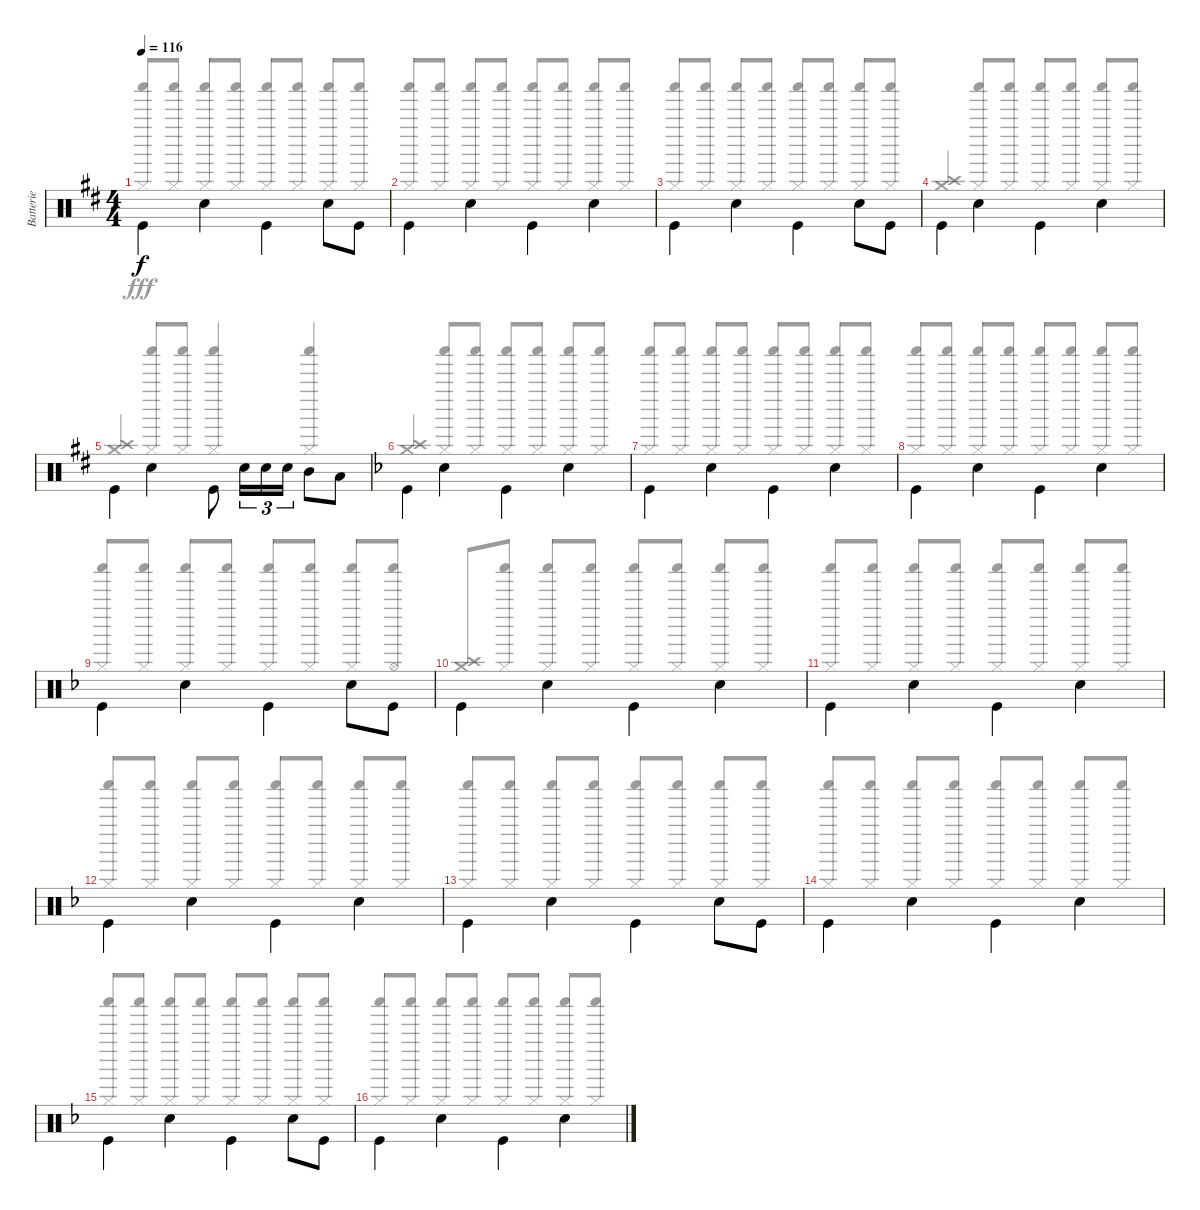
\track ("Batterie" "Batterie") {instrument percussion}
\staff {score}
\articulation defaults
\voice
\ts (4 4)
\tempo 116
\clef neutral
\ks d "Kick (hit)".4{dy f beam Down} "Snare (hit) 2".4{beam Down} "Kick (hit)".4{beam Down} "Snare (hit) 2".8{beam Down} "Kick (hit)".8{beam Down}
|
"Kick (hit)".4{beam Down} "Snare (hit) 2".4{beam Down} "Kick (hit)".4{beam Down} "Snare (hit) 2".4{beam Down} |
"Kick (hit)".4{beam Down} "Snare (hit) 2".4{beam Down} "Kick (hit)".4{beam Down} "Snare (hit) 2".8{beam Down} "Kick (hit)".8{beam Down} |
"Kick (hit)".4{beam Down} "Snare (hit) 2".4{beam Down} "Kick (hit)".4{beam Down} "Snare (hit) 2".4{beam Down} |
"Kick (hit)".4{beam Down} "Snare (hit) 2".4{beam Down} "Kick (hit)".8{beam Down} "Electric Snare (hit)".16{tu (3 2) beam Down} "Electric Snare (hit)".16{tu (3 2) beam Down} "Electric Snare (hit)".16{tu (3 2) beam Down} "Mid Tom (hit)".8{beam Down} "Low Tom (hit)".8{beam Down} |
\ks f "Kick (hit)".4{beam Down} "Snare (hit) 2".4{beam Down} "Kick (hit)".4{beam Down} "Snare (hit) 2".4{beam Down}
|
"Kick (hit)".4{beam Down} "Snare (hit) 2".4{beam Down} "Kick (hit)".4{beam Down} "Snare (hit) 2".4{beam Down} |
"Kick (hit)".4{beam Down} "Snare (hit) 2".4{beam Down} "Kick (hit)".4{beam Down} "Snare (hit) 2".4{beam Down} |
"Kick (hit)".4{beam Down} "Snare (hit) 2".4{beam Down} "Kick (hit)".4{beam Down} "Snare (hit) 2".8{beam Down} "Kick (hit)".8{beam Down} |
"Kick (hit)".4{beam Down} "Snare (hit) 2".4{beam Down} "Kick (hit)".4{beam Down} "Snare (hit) 2".4{beam Down} |
"Kick (hit)".4{beam Down} "Snare (hit) 2".4{beam Down} "Kick (hit)".4{beam Down} "Snare (hit) 2".4{beam Down} |
"Kick (hit)".4{beam Down} "Snare (hit) 2".4{beam Down} "Kick (hit)".4{beam Down} "Snare (hit) 2".4{beam Down} |
"Kick (hit)".4{beam Down} "Snare (hit) 2".4{beam Down} "Kick (hit)".4{beam Down} "Snare (hit) 2".8{beam Down} "Kick (hit)".8{beam Down} |
"Kick (hit)".4{beam Down} "Snare (hit) 2".4{beam Down} "Kick (hit)".4{beam Down} "Snare (hit) 2".4{beam Down} |
"Kick (hit)".4{beam Down} "Snare (hit) 2".4{beam Down} "Kick (hit)".4{beam Down} "Snare (hit) 2".8{beam Down} "Kick (hit)".8{beam Down} |
"Kick (hit)".4{beam Down} "Snare (hit) 2".4{beam Down} "Kick (hit)".4{beam Down} "Snare (hit) 2".4{beam Down}
\voice
\clef neutral
\ottava regular
\simile none
\ks d
("Shaker (hit)" "Hi-Hat (closed)").8{dy fff beam Up} ("Shaker (hit)" "Hi-Hat (closed)").8{beam Up} ("Shaker (hit)" "Hi-Hat (closed)").8{beam Up} ("Shaker (hit)" "Hi-Hat (closed)").8{beam Up} ("Shaker (hit)" "Hi-Hat (closed)").8{beam Up} ("Shaker (hit)" "Hi-Hat (closed)").8{beam Up} ("Shaker (hit)" "Hi-Hat (closed)").8{beam Up} ("Shaker (hit)" "Hi-Hat (closed)").8{beam Up} |
("Shaker (hit)" "Hi-Hat (closed)").8{beam Up} ("Shaker (hit)" "Hi-Hat (closed)").8{beam Up} ("Shaker (hit)" "Hi-Hat (closed)").8{beam Up} ("Shaker (hit)" "Hi-Hat (closed)").8{beam Up} ("Shaker (hit)" "Hi-Hat (closed)").8{beam Up} ("Shaker (hit)" "Hi-Hat (closed)").8{beam Up} ("Shaker (hit)" "Hi-Hat (closed)").8{beam Up} ("Shaker (hit)" "Hi-Hat (closed)").8{beam Up} |
("Shaker (hit)" "Hi-Hat (closed)").8{beam Up} ("Shaker (hit)" "Hi-Hat (closed)").8{beam Up} ("Shaker (hit)" "Hi-Hat (closed)").8{beam Up} ("Shaker (hit)" "Hi-Hat (closed)").8{beam Up} ("Shaker (hit)" "Hi-Hat (closed)").8{beam Up} ("Shaker (hit)" "Hi-Hat (closed)").8{beam Up} ("Shaker (hit)" "Hi-Hat (closed)").8{beam Up} ("Shaker (hit)" "Hi-Hat (closed)").8{beam Up} |
("Crash medium (hit)" "Crash high (hit)").4{beam Up} ("Shaker (hit)" "Hi-Hat (closed)").8{beam Up} ("Shaker (hit)" "Hi-Hat (closed)").8{beam Up} ("Shaker (hit)" "Hi-Hat (closed)").8{beam Up} ("Shaker (hit)" "Hi-Hat (closed)").8{beam Up} ("Shaker (hit)" "Hi-Hat (closed)").8{beam Up} ("Shaker (hit)" "Hi-Hat (closed)").8{beam Up} |
("Crash medium (hit)" "Crash high (hit)").4{beam Up} ("Shaker (hit)" "Hi-Hat (closed)").8{beam Up} ("Shaker (hit)" "Hi-Hat (closed)").8{beam Up} ("Shaker (hit)" "Hi-Hat (closed)").4{beam Up} ("Shaker (hit)" "Hi-Hat (closed)").4{beam Up} |
\ks f
("Crash medium (hit)" "Crash high (hit)").4{beam Up} ("Shaker (hit)" "Hi-Hat (closed)").8{beam Up} ("Shaker (hit)" "Hi-Hat (closed)").8{beam Up} ("Shaker (hit)" "Hi-Hat (closed)").8{beam Up} ("Shaker (hit)" "Hi-Hat (closed)").8{beam Up} ("Shaker (hit)" "Hi-Hat (closed)").8{beam Up} ("Shaker (hit)" "Hi-Hat (closed)").8{beam Up} |
("Shaker (hit)" "Hi-Hat (closed)").8{beam Up} ("Shaker (hit)" "Hi-Hat (closed)").8{beam Up} ("Shaker (hit)" "Hi-Hat (closed)").8{beam Up} ("Shaker (hit)" "Hi-Hat (closed)").8{beam Up} ("Shaker (hit)" "Hi-Hat (closed)").8{beam Up} ("Shaker (hit)" "Hi-Hat (closed)").8{beam Up} ("Shaker (hit)" "Hi-Hat (closed)").8{beam Up} ("Shaker (hit)" "Hi-Hat (closed)").8{beam Up} |
("Shaker (hit)" "Hi-Hat (closed)").8{beam Up} ("Shaker (hit)" "Hi-Hat (closed)").8{beam Up} ("Shaker (hit)" "Hi-Hat (closed)").8{beam Up} ("Shaker (hit)" "Hi-Hat (closed)").8{beam Up} ("Shaker (hit)" "Hi-Hat (closed)").8{beam Up} ("Shaker (hit)" "Hi-Hat (closed)").8{beam Up} ("Shaker (hit)" "Hi-Hat (closed)").8{beam Up} ("Shaker (hit)" "Hi-Hat (closed)").8{beam Up} |
("Shaker (hit)" "Hi-Hat (closed)").8{beam Up} ("Shaker (hit)" "Hi-Hat (closed)").8{beam Up} ("Shaker (hit)" "Hi-Hat (closed)").8{beam Up} ("Shaker (hit)" "Hi-Hat (closed)").8{beam Up} ("Shaker (hit)" "Hi-Hat (closed)").8{beam Up} ("Shaker (hit)" "Hi-Hat (closed)").8{beam Up} ("Shaker (hit)" "Hi-Hat (closed)").8{beam Up} ("Shaker (hit)" "Hi-Hat (open)").8{beam Up} |
("Crash medium (hit)" "Crash high (hit)").8{beam Up} ("Shaker (hit)" "Hi-Hat (closed)").8{beam Up} ("Shaker (hit)" "Hi-Hat (closed)").8{beam Up} ("Shaker (hit)" "Hi-Hat (closed)").8{beam Up} ("Shaker (hit)" "Hi-Hat (closed)").8{beam Up} ("Shaker (hit)" "Hi-Hat (closed)").8{beam Up} ("Shaker (hit)" "Hi-Hat (closed)").8{beam Up} ("Shaker (hit)" "Hi-Hat (closed)").8{beam Up} |
("Shaker (hit)" "Hi-Hat (closed)").8{beam Up} ("Shaker (hit)" "Hi-Hat (closed)").8{beam Up} ("Shaker (hit)" "Hi-Hat (closed)").8{beam Up} ("Shaker (hit)" "Hi-Hat (closed)").8{beam Up} ("Shaker (hit)" "Hi-Hat (closed)").8{beam Up} ("Shaker (hit)" "Hi-Hat (closed)").8{beam Up} ("Shaker (hit)" "Hi-Hat (closed)").8{beam Up} ("Shaker (hit)" "Hi-Hat (closed)").8{beam Up} |
("Shaker (hit)" "Hi-Hat (closed)").8{beam Up} ("Shaker (hit)" "Hi-Hat (closed)").8{beam Up} ("Shaker (hit)" "Hi-Hat (closed)").8{beam Up} ("Shaker (hit)" "Hi-Hat (closed)").8{beam Up} ("Shaker (hit)" "Hi-Hat (closed)").8{beam Up} ("Shaker (hit)" "Hi-Hat (closed)").8{beam Up} ("Shaker (hit)" "Hi-Hat (closed)").8{beam Up} ("Shaker (hit)" "Hi-Hat (closed)").8{beam Up} |
("Shaker (hit)" "Hi-Hat (closed)").8{beam Up} ("Shaker (hit)" "Hi-Hat (closed)").8{beam Up} ("Shaker (hit)" "Hi-Hat (closed)").8{beam Up} ("Shaker (hit)" "Hi-Hat (closed)").8{beam Up} ("Shaker (hit)" "Hi-Hat (closed)").8{beam Up} ("Shaker (hit)" "Hi-Hat (closed)").8{beam Up} ("Shaker (hit)" "Hi-Hat (closed)").8{beam Up} ("Shaker (hit)" "Hi-Hat (closed)").8{beam Up} |
("Shaker (hit)" "Hi-Hat (closed)").8{beam Up} ("Shaker (hit)" "Hi-Hat (closed)").8{beam Up} ("Shaker (hit)" "Hi-Hat (closed)").8{beam Up} ("Shaker (hit)" "Hi-Hat (closed)").8{beam Up} ("Shaker (hit)" "Hi-Hat (closed)").8{beam Up} ("Shaker (hit)" "Hi-Hat (closed)").8{beam Up} ("Shaker (hit)" "Hi-Hat (closed)").8{beam Up} ("Shaker (hit)" "Hi-Hat (closed)").8{beam Up} |
("Shaker (hit)" "Hi-Hat (closed)").8{beam Up} ("Shaker (hit)" "Hi-Hat (closed)").8{beam Up} ("Shaker (hit)" "Hi-Hat (closed)").8{beam Up} ("Shaker (hit)" "Hi-Hat (closed)").8{beam Up} ("Shaker (hit)" "Hi-Hat (closed)").8{beam Up} ("Shaker (hit)" "Hi-Hat (closed)").8{beam Up} ("Shaker (hit)" "Hi-Hat (closed)").8{beam Up} ("Shaker (hit)" "Hi-Hat (closed)").8{beam Up} |
("Shaker (hit)" "Hi-Hat (closed)").8{beam Up} ("Shaker (hit)" "Hi-Hat (closed)").8{beam Up} ("Shaker (hit)" "Hi-Hat (closed)").8{beam Up} ("Shaker (hit)" "Hi-Hat (closed)").8{beam Up} ("Shaker (hit)" "Hi-Hat (closed)").8{beam Up} ("Shaker (hit)" "Hi-Hat (closed)").8{beam Up} ("Shaker (hit)" "Hi-Hat (closed)").8{beam Up} ("Shaker (hit)" "Hi-Hat (closed)").8{beam Up}
